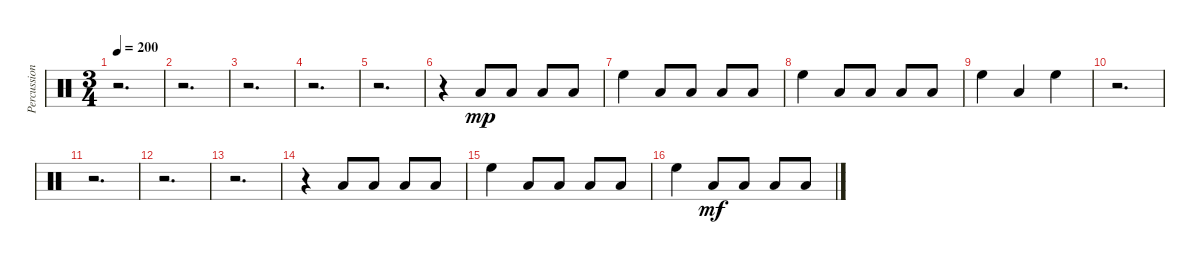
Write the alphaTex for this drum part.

\track ("Percussion." "Percussion") {instrument percussion}
\staff {score}
\articulation defaults
\ts (3 4)
\tempo 200
\clef neutral
\ks c
r.2{d dy f} |
r.2{d} |
r.2{d} |
r.2{d} |
r.2{d} |
r.4 "Low Tom (hit)".8{dy mp} "Low Tom (hit)".8 "Low Tom (hit)".8 "Low Tom (hit)".8 |
"High Floor Tom (hit)".4 "Low Tom (hit)".8 "Low Tom (hit)".8 "Low Tom (hit)".8 "Low Tom (hit)".8 |
"High Floor Tom (hit)".4 "Low Tom (hit)".8 "Low Tom (hit)".8 "Low Tom (hit)".8 "Low Tom (hit)".8 |
"High Floor Tom (hit)".4 "Low Tom (hit)".4 "High Floor Tom (hit)".4 |
r.2{d} |
r.2{d} |
r.2{d} |
r.2{d} |
r.4 "Low Tom (hit)".8 "Low Tom (hit)".8 "Low Tom (hit)".8 "Low Tom (hit)".8 |
"High Floor Tom (hit)".4 "Low Tom (hit)".8 "Low Tom (hit)".8 "Low Tom (hit)".8 "Low Tom (hit)".8 |
"High Floor Tom (hit)".4 "Low Tom (hit)".8{dy mf} "Low Tom (hit)".8 "Low Tom (hit)".8 "Low Tom (hit)".8
